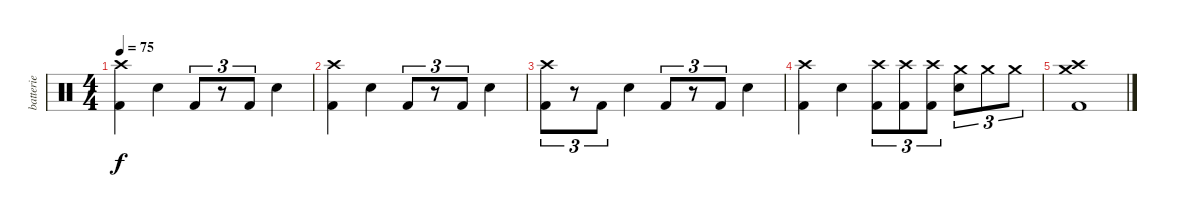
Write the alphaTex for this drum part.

\track ("batterie" "batterie") {instrument percussion}
\staff {score}
\articulation defaults
\ts (4 4)
\tempo 75
\clef neutral
\ks c
("Kick (hit) 2" "Crash high (hit)").4{dy f} "Electric Snare (hit)".4 "Kick (hit) 2".8{tu (3 2)} r.8{tu (3 2)} "Kick (hit) 2".8{tu (3 2)} "Electric Snare (hit)".4 |
("Kick (hit) 2" "Crash high (hit)").4 "Electric Snare (hit)".4 "Kick (hit) 2".8{tu (3 2)} r.8{tu (3 2)} "Kick (hit) 2".8{tu (3 2)} "Electric Snare (hit)".4 |
("Kick (hit) 2" "Crash high (hit)").8{tu (3 2)} r.8{tu (3 2)} "Kick (hit) 2".8{tu (3 2)} "Electric Snare (hit)".4 "Kick (hit) 2".8{tu (3 2)} r.8{tu (3 2)} "Kick (hit) 2".8{tu (3 2)} "Electric Snare (hit)".4 |
("Kick (hit) 2" "Crash high (hit)").4 "Electric Snare (hit)".4 ("Crash high (hit)" "Kick (hit) 2").8{tu (3 2)} ("Crash high (hit)" "Kick (hit) 2").8{tu (3 2)} ("Crash high (hit)" "Kick (hit) 2").8{tu (3 2)} ("Crash medium (hit)" "Electric Snare (hit)").8{tu (3 2)} "Crash medium (hit)".8{tu (3 2)} "Crash medium (hit)".8{tu (3 2)} |
("Crash medium (hit)" "Crash high (hit)" "Kick (hit) 2").1
